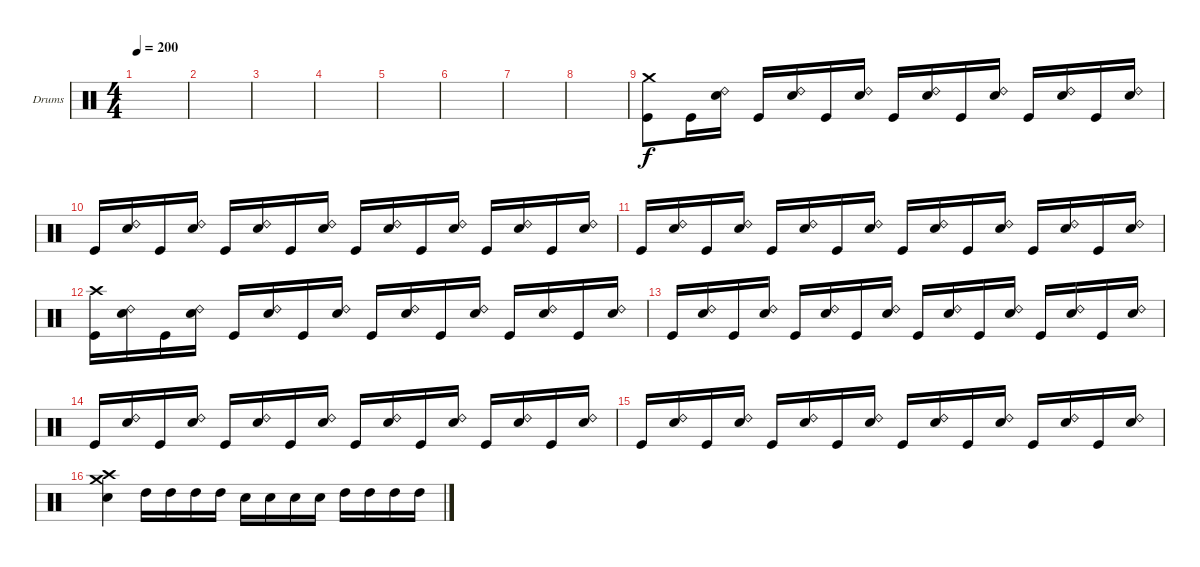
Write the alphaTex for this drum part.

\bracketExtendMode groupsimilarinstruments
\firstSystemTrackNameOrientation horizontal
\otherSystemsTrackNameOrientation horizontal
\track ("Drumkit" "Drums") {instrument percussion}
\staff {score}
\articulation defaults
\ts (4 4)
\tempo 200
\clef neutral
\scale
0.333333
\ks c
|
\scale
0.333333 |
\scale
0.333333 |
\scale
0.333333 |
\scale
0.333333 |
\scale
0.333333 |
\scale
0.333333 |
\scale
0.333333 |
\scale
0.333333 ("Crash medium (hit)" "Kick (hit)").8 "Kick (hit)".16 ("Ride (bell) 2" "Snare (hit) 2").16 "Kick (hit)".16 ("Ride (bell) 2" "Snare (hit) 2").16 "Kick (hit)".16 ("Ride (bell) 2" "Snare (hit) 2").16 "Kick (hit)".16 ("Ride (bell) 2" "Snare (hit) 2").16 "Kick (hit)".16 ("Ride (bell) 2" "Snare (hit) 2").16 "Kick (hit)".16 ("Ride (bell) 2" "Snare (hit) 2").16 "Kick (hit)".16 ("Ride (bell) 2" "Snare (hit) 2").16 |
\scale
0.333333 "Kick (hit)".16 ("Ride (bell) 2" "Snare (hit) 2").16 "Kick (hit)".16 ("Ride (bell) 2" "Snare (hit) 2").16 "Kick (hit)".16 ("Ride (bell) 2" "Snare (hit) 2").16 "Kick (hit)".16 ("Ride (bell) 2" "Snare (hit) 2").16 "Kick (hit)".16 ("Ride (bell) 2" "Snare (hit) 2").16 "Kick (hit)".16 ("Ride (bell) 2" "Snare (hit) 2").16 "Kick (hit)".16 ("Ride (bell) 2" "Snare (hit) 2").16 "Kick (hit)".16 ("Ride (bell) 2" "Snare (hit) 2").16 |
\scale
0.333333 "Kick (hit)".16 ("Ride (bell) 2" "Snare (hit) 2").16 "Kick (hit)".16 ("Ride (bell) 2" "Snare (hit) 2").16 "Kick (hit)".16 ("Ride (bell) 2" "Snare (hit) 2").16 "Kick (hit)".16 ("Ride (bell) 2" "Snare (hit) 2").16 "Kick (hit)".16 ("Ride (bell) 2" "Snare (hit) 2").16 "Kick (hit)".16 ("Ride (bell) 2" "Snare (hit) 2").16 "Kick (hit)".16 ("Ride (bell) 2" "Snare (hit) 2").16 "Kick (hit)".16 ("Ride (bell) 2" "Snare (hit) 2").16 |
\scale
0.333333 ("Crash high (hit)" "Kick (hit)").16 ("Ride (bell) 2" "Snare (hit) 2").16 "Kick (hit)".16 ("Ride (bell) 2" "Snare (hit) 2").16 "Kick (hit)".16 ("Ride (bell) 2" "Snare (hit) 2").16 "Kick (hit)".16 ("Ride (bell) 2" "Snare (hit) 2").16 "Kick (hit)".16 ("Ride (bell) 2" "Snare (hit) 2").16 "Kick (hit)".16 ("Ride (bell) 2" "Snare (hit) 2").16 "Kick (hit)".16 ("Ride (bell) 2" "Snare (hit) 2").16 "Kick (hit)".16 ("Ride (bell) 2" "Snare (hit) 2").16 |
\scale
0.333333 "Kick (hit)".16 ("Ride (bell) 2" "Snare (hit) 2").16 "Kick (hit)".16 ("Ride (bell) 2" "Snare (hit) 2").16 "Kick (hit)".16 ("Ride (bell) 2" "Snare (hit) 2").16 "Kick (hit)".16 ("Ride (bell) 2" "Snare (hit) 2").16 "Kick (hit)".16 ("Ride (bell) 2" "Snare (hit) 2").16 "Kick (hit)".16 ("Ride (bell) 2" "Snare (hit) 2").16 "Kick (hit)".16 ("Ride (bell) 2" "Snare (hit) 2").16 "Kick (hit)".16 ("Ride (bell) 2" "Snare (hit) 2").16 |
\scale
0.333333 "Kick (hit)".16 ("Ride (bell) 2" "Snare (hit) 2").16 "Kick (hit)".16 ("Ride (bell) 2" "Snare (hit) 2").16 "Kick (hit)".16 ("Ride (bell) 2" "Snare (hit) 2").16 "Kick (hit)".16 ("Ride (bell) 2" "Snare (hit) 2").16 "Kick (hit)".16 ("Ride (bell) 2" "Snare (hit) 2").16 "Kick (hit)".16 ("Ride (bell) 2" "Snare (hit) 2").16 "Kick (hit)".16 ("Ride (bell) 2" "Snare (hit) 2").16 "Kick (hit)".16 ("Ride (bell) 2" "Snare (hit) 2").16 |
\scale
0.333333 "Kick (hit)".16 ("Ride (bell) 2" "Snare (hit) 2").16 "Kick (hit)".16 ("Ride (bell) 2" "Snare (hit) 2").16 "Kick (hit)".16 ("Ride (bell) 2" "Snare (hit) 2").16 "Kick (hit)".16 ("Ride (bell) 2" "Snare (hit) 2").16 "Kick (hit)".16 ("Ride (bell) 2" "Snare (hit) 2").16 "Kick (hit)".16 ("Ride (bell) 2" "Snare (hit) 2").16 "Kick (hit)".16 ("Ride (bell) 2" "Snare (hit) 2").16 "Kick (hit)".16 ("Ride (bell) 2" "Snare (hit) 2").16 |
\scale
0.333333 ("Crash high (hit)" "Crash medium (hit)" "Snare (hit) 2").4 "High Tom (hit)".16 "High Tom (hit)".16 "High Tom (hit)".16 "High Tom (hit)".16 "Snare (hit) 2".16 "Snare (hit) 2".16 "Snare (hit) 2".16 "Snare (hit) 2".16 "High Tom (hit)".16 "High Tom (hit)".16 "High Tom (hit)".16 "High Tom (hit)".16
